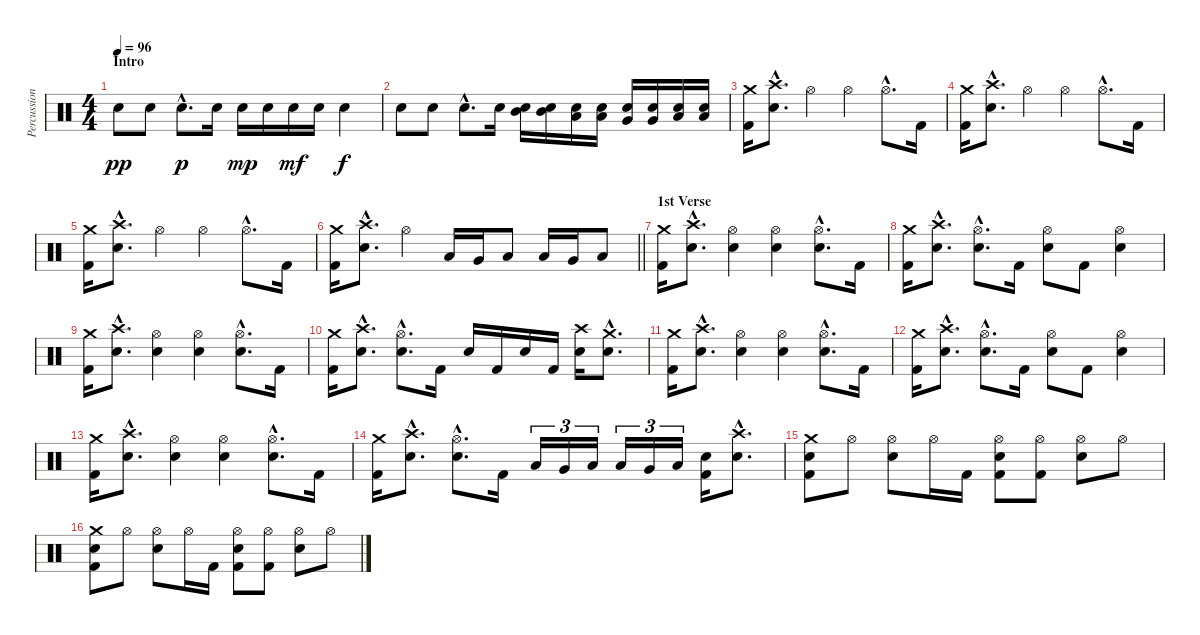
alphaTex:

\track ("Percussion" "Percussion") {instrument percussion}
\staff {score}
\articulation defaults
\ts (4 4)
\section ("" "Intro")
\tempo 96
\clef neutral
\ks c "Snare (hit) 2".8{dy pp} "Snare (hit) 2".8 "Snare (hit) 2"{hac}.8{d dy p} "Snare (hit) 2".16 "Snare (hit) 2".16{dy mp} "Snare (hit) 2".16 "Snare (hit) 2".16{dy mf} "Snare (hit) 2".16 "Snare (hit) 2".4{dy f}
|
"Snare (hit) 2".8 "Snare (hit) 2".8 "Snare (hit) 2"{hac}.8{d} "Snare (hit) 2".16 ("Snare (hit) 2" "Mid Tom (hit)").16 ("Snare (hit) 2" "Mid Tom (hit)").16 ("Snare (hit) 2" "Low Tom (hit)").16 ("Snare (hit) 2" "Low Tom (hit)").16 ("Snare (hit) 2" "Very Low Tom (hit)").16 ("Snare (hit) 2" "Very Low Tom (hit)").16 ("Snare (hit) 2" "Low Floor Tom (hit)").16 ("Snare (hit) 2" "Low Floor Tom (hit)").16 |
("Crash medium (hit)" "Kick (hit) 2").16 ("Crash high (hit)"{hac} "Snare (hit) 2"{hac}).8{d} "Hi-Hat (open)".4 "Hi-Hat (open)".4 "Hi-Hat (open)"{hac}.8{d} "Kick (hit) 2".16 |
("Crash medium (hit)" "Kick (hit) 2").16 ("Crash high (hit)"{hac} "Snare (hit) 2"{hac}).8{d} "Hi-Hat (open)".4 "Hi-Hat (open)".4 "Hi-Hat (open)"{hac}.8{d} "Kick (hit) 2".16 |
("Crash medium (hit)" "Kick (hit) 2").16 ("Crash high (hit)"{hac} "Snare (hit) 2"{hac}).8{d} "Hi-Hat (open)".4 "Hi-Hat (open)".4 "Hi-Hat (open)"{hac}.8{d} "Kick (hit) 2".16 |
\barLineRight lightlight
("Crash medium (hit)" "Kick (hit) 2").16 ("Crash high (hit)"{hac} "Snare (hit) 2"{hac}).8{d} "Hi-Hat (open)".4 "Low Tom (hit)".16 "Very Low Tom (hit)".16 "Low Floor Tom (hit)".8 "Low Tom (hit)".16 "Very Low Tom (hit)".16 "Low Floor Tom (hit)".8 |
\section ("" "1st Verse")
("Crash medium (hit)" "Kick (hit) 2").16 ("Crash high (hit)"{hac} "Snare (hit) 2"{hac}).8{d} ("Hi-Hat (open)" "Snare (hit) 2").4 ("Hi-Hat (open)" "Snare (hit) 2").4 ("Hi-Hat (open)"{hac} "Snare (hit) 2"{hac}).8{d} "Kick (hit) 2".16 |
("Crash medium (hit)" "Kick (hit) 2").16 ("Crash high (hit)"{hac} "Snare (hit) 2"{hac}).8{d} ("Hi-Hat (open)"{hac} "Snare (hit) 2"{hac}).8{d} "Kick (hit) 2".16 ("Hi-Hat (open)" "Snare (hit) 2").8 "Kick (hit) 2".8 ("Hi-Hat (open)" "Snare (hit) 2").4 |
("Crash medium (hit)" "Kick (hit) 2").16 ("Crash high (hit)"{hac} "Snare (hit) 2"{hac}).8{d} ("Hi-Hat (open)" "Snare (hit) 2").4 ("Hi-Hat (open)" "Snare (hit) 2").4 ("Hi-Hat (open)"{hac} "Snare (hit) 2"{hac}).8{d} "Kick (hit) 2".16 |
("Crash medium (hit)" "Kick (hit) 2").16 ("Crash high (hit)"{hac} "Snare (hit) 2"{hac}).8{d} ("Hi-Hat (open)"{hac} "Snare (hit) 2"{hac}).8{d} "Kick (hit) 2".16 "Snare (hit) 2".16 "Kick (hit) 2".16 "Snare (hit) 2".16 "Kick (hit) 2".16 ("Crash high (hit)" "Snare (hit) 2").16 ("Crash medium (hit)"{hac} "Snare (hit) 2"{hac}).8{d} |
("Crash medium (hit)" "Kick (hit) 2").16 ("Crash high (hit)"{hac} "Snare (hit) 2"{hac}).8{d} ("Hi-Hat (open)" "Snare (hit) 2").4 ("Hi-Hat (open)" "Snare (hit) 2").4 ("Hi-Hat (open)"{hac} "Snare (hit) 2"{hac}).8{d} "Kick (hit) 2".16 |
("Crash medium (hit)" "Kick (hit) 2").16 ("Crash high (hit)"{hac} "Snare (hit) 2"{hac}).8{d} ("Hi-Hat (open)"{hac} "Snare (hit) 2"{hac}).8{d} "Kick (hit) 2".16 ("Hi-Hat (open)" "Snare (hit) 2").8 "Kick (hit) 2".8 ("Hi-Hat (open)" "Snare (hit) 2").4 |
("Crash medium (hit)" "Kick (hit) 2").16 ("Crash high (hit)"{hac} "Snare (hit) 2"{hac}).8{d} ("Hi-Hat (open)" "Snare (hit) 2").4 ("Hi-Hat (open)" "Snare (hit) 2").4 ("Hi-Hat (open)"{hac} "Snare (hit) 2"{hac}).8{d} "Kick (hit) 2".16 |
("Crash medium (hit)" "Kick (hit) 2").16 ("Crash high (hit)"{hac} "Snare (hit) 2"{hac}).8{d} ("Hi-Hat (open)"{hac} "Snare (hit) 2"{hac}).8{d} "Kick (hit) 2".16 "Low Tom (hit)".16{tu (3 2)} "Very Low Tom (hit)".16{tu (3 2)} "Low Floor Tom (hit)".16{tu (3 2)} "Low Tom (hit)".16{tu (3 2)} "Very Low Tom (hit)".16{tu (3 2)} "Low Floor Tom (hit)".16{tu (3 2)} ("Snare (hit) 2" "Kick (hit) 2").16 ("Crash high (hit)"{hac} "Snare (hit) 2"{hac}).8{d} |
("Crash medium (hit)" "Snare (hit) 2" "Kick (hit) 2").8 "Hi-Hat (open)".8 ("Hi-Hat (open)" "Snare (hit) 2").8 "Hi-Hat (open)".16 "Kick (hit) 2".16 ("Hi-Hat (open)" "Snare (hit) 2" "Kick (hit) 2").8 ("Hi-Hat (open)" "Kick (hit) 2").8 ("Hi-Hat (open)" "Snare (hit) 2").8 "Hi-Hat (open)".8 |
("Crash medium (hit)" "Snare (hit) 2" "Kick (hit) 2").8 "Hi-Hat (open)".8 ("Hi-Hat (open)" "Snare (hit) 2").8 "Hi-Hat (open)".16 "Kick (hit) 2".16 ("Hi-Hat (open)" "Snare (hit) 2" "Kick (hit) 2").8 ("Hi-Hat (open)" "Kick (hit) 2").8 ("Hi-Hat (open)" "Snare (hit) 2").8 "Hi-Hat (open)".8
